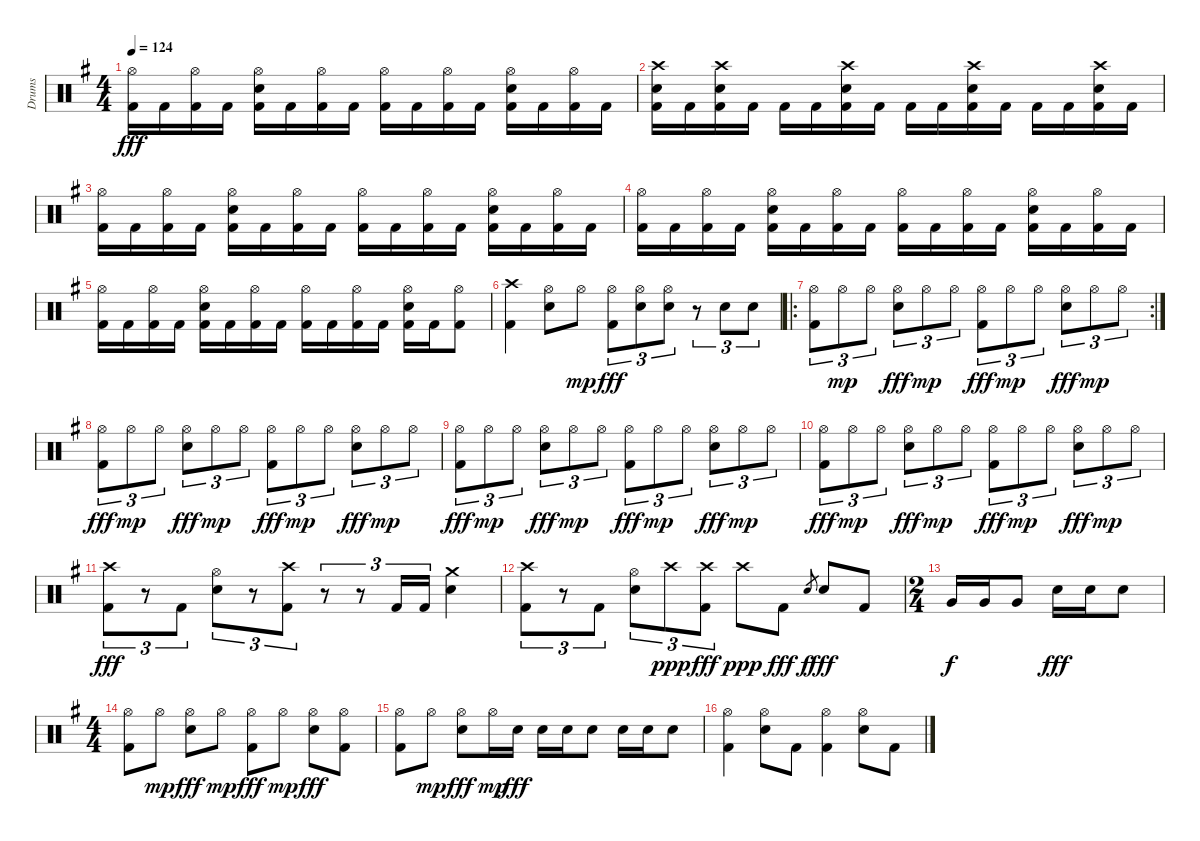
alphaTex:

\track ("Drums" "Drums") {instrument percussion}
\staff {score}
\articulation defaults
\ts (4 4)
\tempo 124
\clef neutral
\ks g
("Hi-Hat (open)" "Kick (hit) 2").16{dy fff} "Kick (hit) 2".16 ("Hi-Hat (open)" "Kick (hit) 2").16 "Kick (hit) 2".16 ("Hi-Hat (open)" "Electric Snare (hit)" "Kick (hit) 2").16 "Kick (hit) 2".16 ("Hi-Hat (open)" "Kick (hit) 2").16 "Kick (hit) 2".16 ("Hi-Hat (open)" "Kick (hit) 2").16 "Kick (hit) 2".16 ("Hi-Hat (open)" "Kick (hit) 2").16 "Kick (hit) 2".16 ("Hi-Hat (open)" "Electric Snare (hit)" "Kick (hit) 2").16 "Kick (hit) 2".16 ("Hi-Hat (open)" "Kick (hit) 2").16 "Kick (hit) 2".16 |
("Crash high (hit)" "Electric Snare (hit)" "Kick (hit) 2").16 "Kick (hit) 2".16 ("Crash high (hit)" "Electric Snare (hit)" "Kick (hit) 2").16 "Kick (hit) 2".16 "Kick (hit) 2".16 "Kick (hit) 2".16 ("Crash high (hit)" "Electric Snare (hit)" "Kick (hit) 2").16 "Kick (hit) 2".16 "Kick (hit) 2".16 "Kick (hit) 2".16 ("Crash high (hit)" "Electric Snare (hit)" "Kick (hit) 2").16 "Kick (hit) 2".16 "Kick (hit) 2".16 "Kick (hit) 2".16 ("Crash high (hit)" "Electric Snare (hit)" "Kick (hit) 2").16 "Kick (hit) 2".16 |
("Hi-Hat (open)" "Kick (hit) 2").16 "Kick (hit) 2".16 ("Hi-Hat (open)" "Kick (hit) 2").16 "Kick (hit) 2".16 ("Hi-Hat (open)" "Electric Snare (hit)" "Kick (hit) 2").16 "Kick (hit) 2".16 ("Hi-Hat (open)" "Kick (hit) 2").16 "Kick (hit) 2".16 ("Hi-Hat (open)" "Kick (hit) 2").16 "Kick (hit) 2".16 ("Hi-Hat (open)" "Kick (hit) 2").16 "Kick (hit) 2".16 ("Hi-Hat (open)" "Electric Snare (hit)" "Kick (hit) 2").16 "Kick (hit) 2".16 ("Hi-Hat (open)" "Kick (hit) 2").16 "Kick (hit) 2".16 |
("Hi-Hat (open)" "Kick (hit) 2").16 "Kick (hit) 2".16 ("Hi-Hat (open)" "Kick (hit) 2").16 "Kick (hit) 2".16 ("Hi-Hat (open)" "Electric Snare (hit)" "Kick (hit) 2").16 "Kick (hit) 2".16 ("Hi-Hat (open)" "Kick (hit) 2").16 "Kick (hit) 2".16 ("Hi-Hat (open)" "Kick (hit) 2").16 "Kick (hit) 2".16 ("Hi-Hat (open)" "Kick (hit) 2").16 "Kick (hit) 2".16 ("Hi-Hat (open)" "Electric Snare (hit)" "Kick (hit) 2").16 "Kick (hit) 2".16 ("Hi-Hat (open)" "Kick (hit) 2").16 "Kick (hit) 2".16 |
("Hi-Hat (open)" "Kick (hit) 2").16 "Kick (hit) 2".16 ("Hi-Hat (open)" "Kick (hit) 2").16 "Kick (hit) 2".16 ("Hi-Hat (open)" "Electric Snare (hit)" "Kick (hit) 2").16 "Kick (hit) 2".16 ("Hi-Hat (open)" "Kick (hit) 2").16 "Kick (hit) 2".16 ("Hi-Hat (open)" "Kick (hit) 2").16 "Kick (hit) 2".16 ("Hi-Hat (open)" "Kick (hit) 2").16 "Kick (hit) 2".16 ("Hi-Hat (open)" "Electric Snare (hit)" "Kick (hit) 2").16 "Kick (hit) 2".16 ("Hi-Hat (open)" "Kick (hit) 2").8 |
("Crash high (hit)" "Kick (hit) 2").4 ("Hi-Hat (open)" "Electric Snare (hit)").8 "Hi-Hat (open)".8{dy mp} ("Hi-Hat (open)" "Kick (hit) 2").8{tu (3 2) dy fff} ("Hi-Hat (open)" "Electric Snare (hit)").8{tu (3 2)} ("Hi-Hat (open)" "Electric Snare (hit)").8{tu (3 2)} r.8{tu (3 2)} "Electric Snare (hit)".8{tu (3 2)} "Electric Snare (hit)".8{tu (3 2)} |
\ro
\rc 2
("Hi-Hat (open)" "Kick (hit) 2").8{tu (3 2)} "Hi-Hat (open)".8{tu (3 2) dy mp} "Hi-Hat (open)".8{tu (3 2)} ("Hi-Hat (open)" "Electric Snare (hit)").8{tu (3 2) dy fff} "Hi-Hat (open)".8{tu (3 2) dy mp} "Hi-Hat (open)".8{tu (3 2)} ("Hi-Hat (open)" "Kick (hit) 2").8{tu (3 2) dy fff} "Hi-Hat (open)".8{tu (3 2) dy mp} "Hi-Hat (open)".8{tu (3 2)} ("Hi-Hat (open)" "Electric Snare (hit)").8{tu (3 2) dy fff} "Hi-Hat (open)".8{tu (3 2) dy mp} "Hi-Hat (open)".8{tu (3 2)} |
("Hi-Hat (open)" "Kick (hit) 2").8{tu (3 2) dy fff} "Hi-Hat (open)".8{tu (3 2) dy mp} "Hi-Hat (open)".8{tu (3 2)} ("Hi-Hat (open)" "Electric Snare (hit)").8{tu (3 2) dy fff} "Hi-Hat (open)".8{tu (3 2) dy mp} "Hi-Hat (open)".8{tu (3 2)} ("Hi-Hat (open)" "Kick (hit) 2").8{tu (3 2) dy fff} "Hi-Hat (open)".8{tu (3 2) dy mp} "Hi-Hat (open)".8{tu (3 2)} ("Hi-Hat (open)" "Electric Snare (hit)").8{tu (3 2) dy fff} "Hi-Hat (open)".8{tu (3 2) dy mp} "Hi-Hat (open)".8{tu (3 2)} |
("Hi-Hat (open)" "Kick (hit) 2").8{tu (3 2) dy fff} "Hi-Hat (open)".8{tu (3 2) dy mp} "Hi-Hat (open)".8{tu (3 2)} ("Hi-Hat (open)" "Electric Snare (hit)").8{tu (3 2) dy fff} "Hi-Hat (open)".8{tu (3 2) dy mp} "Hi-Hat (open)".8{tu (3 2)} ("Hi-Hat (open)" "Kick (hit) 2").8{tu (3 2) dy fff} "Hi-Hat (open)".8{tu (3 2) dy mp} "Hi-Hat (open)".8{tu (3 2)} ("Hi-Hat (open)" "Electric Snare (hit)").8{tu (3 2) dy fff} "Hi-Hat (open)".8{tu (3 2) dy mp} "Hi-Hat (open)".8{tu (3 2)} |
("Hi-Hat (open)" "Kick (hit) 2").8{tu (3 2) dy fff} "Hi-Hat (open)".8{tu (3 2) dy mp} "Hi-Hat (open)".8{tu (3 2)} ("Hi-Hat (open)" "Electric Snare (hit)").8{tu (3 2) dy fff} "Hi-Hat (open)".8{tu (3 2) dy mp} "Hi-Hat (open)".8{tu (3 2)} ("Hi-Hat (open)" "Kick (hit) 2").8{tu (3 2) dy fff} "Hi-Hat (open)".8{tu (3 2) dy mp} "Hi-Hat (open)".8{tu (3 2)} ("Hi-Hat (open)" "Electric Snare (hit)").8{tu (3 2) dy fff} "Hi-Hat (open)".8{tu (3 2) dy mp} "Hi-Hat (open)".8{tu (3 2)} |
("Crash high (hit)" "Kick (hit) 2").8{tu (3 2) dy fff} r.8{tu (3 2)} "Kick (hit) 2".8{tu (3 2)} ("Hi-Hat (open)" "Electric Snare (hit)").8{tu (3 2)} r.8{tu (3 2)} ("Crash high (hit)" "Kick (hit) 2").8{tu (3 2)} r.8{tu (3 2)} r.8{tu (3 2)} "Kick (hit) 2".16{tu (3 2)} "Kick (hit) 2".16{tu (3 2)} ("Crash medium (hit)" "Electric Snare (hit)").4 |
("Crash high (hit)" "Kick (hit) 2").8{tu (3 2)} r.8{tu (3 2)} "Kick (hit) 2".8{tu (3 2)} ("Hi-Hat (open)" "Electric Snare (hit)").8{tu (3 2)} "Crash high (hit)".8{tu (3 2) dy ppp} ("Crash high (hit)" "Kick (hit) 2").8{tu (3 2) dy fff} "Crash high (hit)".8{dy ppp} "Kick (hit) 2".8{dy fff} "Electric Snare (hit)".8{gr dy f} "Electric Snare (hit)".8{dy fff} "Kick (hit) 2".8 |
\ts (2 4)
"Very Low Tom (hit)".16{dy f} "Very Low Tom (hit)".16 "Very Low Tom (hit)".8 "Electric Snare (hit)".16{dy fff} "Electric Snare (hit)".16 "Electric Snare (hit)".8 |
\ts (4 4)
("Hi-Hat (open)" "Kick (hit) 2").8 "Hi-Hat (open)".8{dy mp} ("Hi-Hat (open)" "Electric Snare (hit)").8{dy fff} "Hi-Hat (open)".8{dy mp} ("Hi-Hat (open)" "Kick (hit) 2").8{dy fff} "Hi-Hat (open)".8{dy mp} ("Hi-Hat (open)" "Electric Snare (hit)").8{dy fff} ("Hi-Hat (open)" "Kick (hit) 2").8 |
("Hi-Hat (open)" "Kick (hit) 2").8 "Hi-Hat (open)".8{dy mp} ("Hi-Hat (open)" "Electric Snare (hit)").8{dy fff} "Hi-Hat (open)".16{dy mp} "Electric Snare (hit)".16{dy fff} "Electric Snare (hit)".16 "Electric Snare (hit)".16 "Electric Snare (hit)".8 "Electric Snare (hit)".16 "Electric Snare (hit)".16 "Electric Snare (hit)".8 |
("Hi-Hat (open)" "Kick (hit) 2").4 ("Hi-Hat (open)" "Electric Snare (hit)").8 "Kick (hit) 2".8 ("Hi-Hat (open)" "Kick (hit) 2").4 ("Hi-Hat (open)" "Electric Snare (hit)").8 "Kick (hit) 2".8
